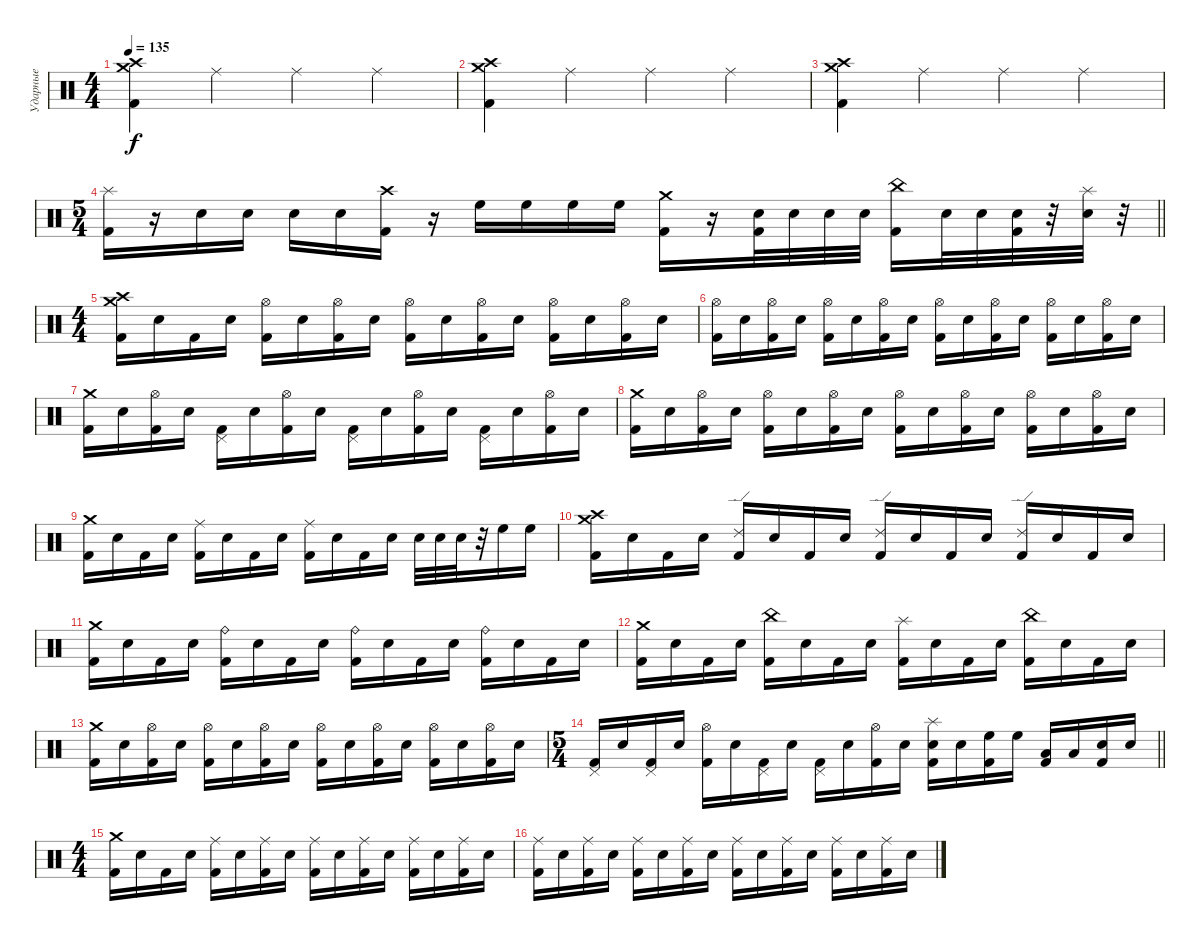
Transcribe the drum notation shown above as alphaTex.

\track ("Ударные" "Ударные") {instrument percussion}
\staff {score}
\articulation defaults
\ts (4 4)
\tempo 135
\clef neutral
\ks c
("Crash medium (hit)" "Crash high (hit)" "Kick (hit) 2").4{dy f} "Ride (middle)".4 "Ride (middle)".4 "Ride (middle)".4 |
("Crash medium (hit)" "Crash high (hit)" "Kick (hit) 2").4 "Ride (middle)".4 "Ride (middle)".4 "Ride (middle)".4 |
("Crash medium (hit)" "Crash high (hit)" "Kick (hit) 2").4 "Ride (middle)".4 "Ride (middle)".4 "Ride (middle)".4 |
\ts (5 4)
\barLineRight lightlight
("Splash (hit)" "Kick (hit) 2").16 r.16 "Electric Snare (hit)".16 "Electric Snare (hit)".16 "Electric Snare (hit)".16 "Electric Snare (hit)".16 ("Crash high (hit)" "Kick (hit) 2").16 r.16 "High Floor Tom (hit)".16 "High Floor Tom (hit)".16 "High Floor Tom (hit)".16 "High Floor Tom (hit)".16 ("Crash medium (hit)" "Kick (hit) 2").16 r.16 ("Electric Snare (hit)" "Kick (hit) 2").32 "Electric Snare (hit)".32 "Electric Snare (hit)".32 "Electric Snare (hit)".32 ("China (hit)" "Kick (hit) 2").16 "Electric Snare (hit)".32 "Electric Snare (hit)".32 ("Electric Snare (hit)" "Kick (hit) 2").32 r.32 ("Splash (hit)" "Electric Snare (hit)").32 r.32 |
\ts (4 4)
("Crash medium (hit)" "Crash high (hit)" "Kick (hit) 2").16 "Electric Snare (hit)".16 "Kick (hit) 2".16 "Electric Snare (hit)".16 ("Hi-Hat (open)" "Kick (hit) 2").16 "Electric Snare (hit)".16 ("Hi-Hat (open)" "Kick (hit) 2").16 "Electric Snare (hit)".16 ("Hi-Hat (open)" "Kick (hit) 2").16 "Electric Snare (hit)".16 ("Hi-Hat (open)" "Kick (hit) 2").16 "Electric Snare (hit)".16 ("Hi-Hat (open)" "Kick (hit) 2").16 "Electric Snare (hit)".16 ("Hi-Hat (open)" "Kick (hit) 2").16 "Electric Snare (hit)".16 |
("Hi-Hat (open)" "Kick (hit) 2").16 "Electric Snare (hit)".16 ("Hi-Hat (open)" "Kick (hit) 2").16 "Electric Snare (hit)".16 ("Hi-Hat (open)" "Kick (hit) 2").16 "Electric Snare (hit)".16 ("Hi-Hat (open)" "Kick (hit) 2").16 "Electric Snare (hit)".16 ("Hi-Hat (open)" "Kick (hit) 2").16 "Electric Snare (hit)".16 ("Hi-Hat (open)" "Kick (hit) 2").16 "Electric Snare (hit)".16 ("Hi-Hat (open)" "Kick (hit) 2").16 "Electric Snare (hit)".16 ("Hi-Hat (open)" "Kick (hit) 2").16 "Electric Snare (hit)".16 |
("Crash medium (hit)" "Kick (hit) 2").16 "Electric Snare (hit)".16 ("Hi-Hat (open)" "Kick (hit) 2").16 "Electric Snare (hit)".16 ("Pedal Hi-Hat (hit)" "Kick (hit) 2").16 "Electric Snare (hit)".16 ("Hi-Hat (open)" "Kick (hit) 2").16 "Electric Snare (hit)".16 ("Pedal Hi-Hat (hit)" "Kick (hit) 2").16 "Electric Snare (hit)".16 ("Hi-Hat (open)" "Kick (hit) 2").16 "Electric Snare (hit)".16 ("Pedal Hi-Hat (hit)" "Kick (hit) 2").16 "Electric Snare (hit)".16 ("Hi-Hat (open)" "Kick (hit) 2").16 "Electric Snare (hit)".16 |
("Crash medium (hit)" "Kick (hit) 2").16 "Electric Snare (hit)".16 ("Hi-Hat (open)" "Kick (hit) 2").16 "Electric Snare (hit)".16 ("Hi-Hat (open)" "Kick (hit) 2").16 "Electric Snare (hit)".16 ("Hi-Hat (open)" "Kick (hit) 2").16 "Electric Snare (hit)".16 ("Hi-Hat (open)" "Kick (hit) 2").16 "Electric Snare (hit)".16 ("Hi-Hat (open)" "Kick (hit) 2").16 "Electric Snare (hit)".16 ("Hi-Hat (open)" "Kick (hit) 2").16 "Electric Snare (hit)".16 ("Hi-Hat (open)" "Kick (hit) 2").16 "Electric Snare (hit)".16 |
("Crash medium (hit)" "Kick (hit) 2").16 "Electric Snare (hit)".16 "Kick (hit) 2".16 "Electric Snare (hit)".16 ("Ride (middle)" "Kick (hit) 2").16 "Electric Snare (hit)".16 "Kick (hit) 2".16 "Electric Snare (hit)".16 ("Ride (middle)" "Kick (hit) 2").16 "Electric Snare (hit)".16 "Kick (hit) 2".16 "Electric Snare (hit)".16 "Electric Snare (hit)".32 "Electric Snare (hit)".32 "Electric Snare (hit)".32 r.32 "High Floor Tom (hit)".16 "High Floor Tom (hit)".16 |
("Crash medium (hit)" "Crash high (hit)" "Kick (hit) 2").16 "Electric Snare (hit)".16 "Kick (hit) 2".16 "Electric Snare (hit)".16 ("Ride (edge) 2" "Kick (hit) 2").16 "Electric Snare (hit)".16 "Kick (hit) 2".16 "Electric Snare (hit)".16 ("Ride (edge) 2" "Kick (hit) 2").16 "Electric Snare (hit)".16 "Kick (hit) 2".16 "Electric Snare (hit)".16 ("Ride (edge) 2" "Kick (hit) 2").16 "Electric Snare (hit)".16 "Kick (hit) 2".16 "Electric Snare (hit)".16 |
("Crash medium (hit)" "Kick (hit) 2").16 "Electric Snare (hit)".16 "Kick (hit) 2".16 "Electric Snare (hit)".16 ("Ride (bell)" "Kick (hit) 2").16 "Electric Snare (hit)".16 "Kick (hit) 2".16 "Electric Snare (hit)".16 ("Ride (bell)" "Kick (hit) 2").16 "Electric Snare (hit)".16 "Kick (hit) 2".16 "Electric Snare (hit)".16 ("Ride (bell)" "Kick (hit) 2").16 "Electric Snare (hit)".16 "Kick (hit) 2".16 "Electric Snare (hit)".16 |
("Crash medium (hit)" "Kick (hit) 2").16 "Electric Snare (hit)".16 "Kick (hit) 2".16 "Electric Snare (hit)".16 ("China (hit)" "Kick (hit) 2").16 "Electric Snare (hit)".16 "Kick (hit) 2".16 "Electric Snare (hit)".16 ("Splash (hit)" "Kick (hit) 2").16 "Electric Snare (hit)".16 "Kick (hit) 2".16 "Electric Snare (hit)".16 ("China (hit)" "Kick (hit) 2").16 "Electric Snare (hit)".16 "Kick (hit) 2".16 "Electric Snare (hit)".16 |
("Crash medium (hit)" "Kick (hit) 2").16 "Electric Snare (hit)".16 ("Hi-Hat (open)" "Kick (hit) 2").16 "Electric Snare (hit)".16 ("Hi-Hat (open)" "Kick (hit) 2").16 "Electric Snare (hit)".16 ("Hi-Hat (open)" "Kick (hit) 2").16 "Electric Snare (hit)".16 ("Hi-Hat (open)" "Kick (hit) 2").16 "Electric Snare (hit)".16 ("Hi-Hat (open)" "Kick (hit) 2").16 "Electric Snare (hit)".16 ("Hi-Hat (open)" "Kick (hit) 2").16 "Electric Snare (hit)".16 ("Hi-Hat (open)" "Kick (hit) 2").16 "Electric Snare (hit)".16 |
\ts (5 4)
\barLineRight lightlight
("Pedal Hi-Hat (hit)" "Kick (hit) 2").16 "Electric Snare (hit)".16 ("Pedal Hi-Hat (hit)" "Kick (hit) 2").16 "Electric Snare (hit)".16 ("Hi-Hat (open)" "Kick (hit) 2").16 "Electric Snare (hit)".16 ("Pedal Hi-Hat (hit)" "Kick (hit) 2").16 "Electric Snare (hit)".16 ("Pedal Hi-Hat (hit)" "Kick (hit) 2").16 "Electric Snare (hit)".16 ("Hi-Hat (open)" "Kick (hit) 2").16 "Electric Snare (hit)".16 ("Splash (hit)" "Electric Snare (hit)" "Kick (hit) 2").16 "Electric Snare (hit)".16 ("High Floor Tom (hit)" "Kick (hit) 2").16 "High Floor Tom (hit)".16 ("Low Tom (hit)" "Kick (hit) 2").16 "Low Tom (hit)".16 ("Electric Snare (hit)" "Kick (hit) 2").16 "Electric Snare (hit)".16 |
\ts (4 4)
("Crash medium (hit)" "Kick (hit) 2").16 "Electric Snare (hit)".16 "Kick (hit) 2".16 "Electric Snare (hit)".16 ("Ride (middle)" "Kick (hit) 2").16 "Electric Snare (hit)".16 ("Ride (middle)" "Kick (hit) 2").16 "Electric Snare (hit)".16 ("Ride (middle)" "Kick (hit) 2").16 "Electric Snare (hit)".16 ("Ride (middle)" "Kick (hit) 2").16 "Electric Snare (hit)".16 ("Ride (middle)" "Kick (hit) 2").16 "Electric Snare (hit)".16 ("Ride (middle)" "Kick (hit) 2").16 "Electric Snare (hit)".16 |
("Ride (middle)" "Kick (hit) 2").16 "Electric Snare (hit)".16 ("Ride (middle)" "Kick (hit) 2").16 "Electric Snare (hit)".16 ("Ride (middle)" "Kick (hit) 2").16 "Electric Snare (hit)".16 ("Ride (middle)" "Kick (hit) 2").16 "Electric Snare (hit)".16 ("Ride (middle)" "Kick (hit) 2").16 "Electric Snare (hit)".16 ("Ride (middle)" "Kick (hit) 2").16 "Electric Snare (hit)".16 ("Ride (middle)" "Kick (hit) 2").16 "Electric Snare (hit)".16 ("Ride (middle)" "Kick (hit) 2").16 "Electric Snare (hit)".16
